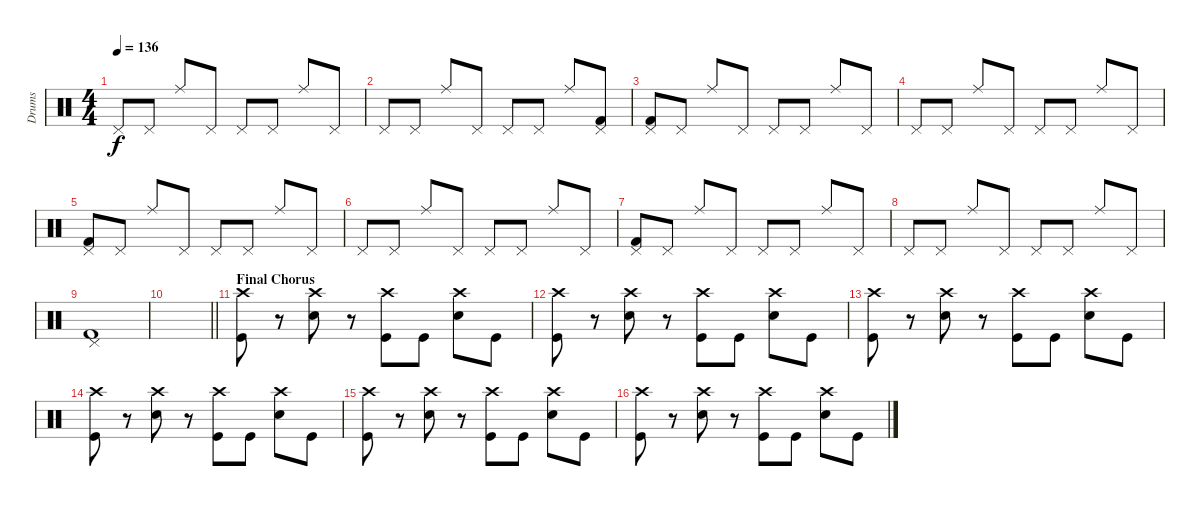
\track ("Drums" "Drums") {instrument percussion}
\staff {score}
\articulation defaults
\ts (4 4)
\tempo 136
\clef neutral
\ks c "Pedal Hi-Hat (hit)".8{dy f} "Pedal Hi-Hat (hit)".8 "Ride (middle)".8 "Pedal Hi-Hat (hit)".8 "Pedal Hi-Hat (hit)".8 "Pedal Hi-Hat (hit)".8 "Ride (middle)".8 "Pedal Hi-Hat (hit)".8
|
"Pedal Hi-Hat (hit)".8 "Pedal Hi-Hat (hit)".8 "Ride (middle)".8 "Pedal Hi-Hat (hit)".8 "Pedal Hi-Hat (hit)".8 "Pedal Hi-Hat (hit)".8 "Ride (middle)".8 ("Pedal Hi-Hat (hit)" "Kick (hit) 2").8 |
("Pedal Hi-Hat (hit)" "Kick (hit) 2").8 "Pedal Hi-Hat (hit)".8 "Ride (middle)".8 "Pedal Hi-Hat (hit)".8 "Pedal Hi-Hat (hit)".8 "Pedal Hi-Hat (hit)".8 "Ride (middle)".8 "Pedal Hi-Hat (hit)".8 |
"Pedal Hi-Hat (hit)".8 "Pedal Hi-Hat (hit)".8 "Ride (middle)".8 "Pedal Hi-Hat (hit)".8 "Pedal Hi-Hat (hit)".8 "Pedal Hi-Hat (hit)".8 "Ride (middle)".8 "Pedal Hi-Hat (hit)".8 |
("Pedal Hi-Hat (hit)" "Kick (hit) 2").8 "Pedal Hi-Hat (hit)".8 "Ride (middle)".8 "Pedal Hi-Hat (hit)".8 "Pedal Hi-Hat (hit)".8 "Pedal Hi-Hat (hit)".8 "Ride (middle)".8 "Pedal Hi-Hat (hit)".8 |
"Pedal Hi-Hat (hit)".8 "Pedal Hi-Hat (hit)".8 "Ride (middle)".8 "Pedal Hi-Hat (hit)".8 "Pedal Hi-Hat (hit)".8 "Pedal Hi-Hat (hit)".8 "Ride (middle)".8 "Pedal Hi-Hat (hit)".8 |
("Pedal Hi-Hat (hit)" "Kick (hit) 2").8 "Pedal Hi-Hat (hit)".8 "Ride (middle)".8 "Pedal Hi-Hat (hit)".8 "Pedal Hi-Hat (hit)".8 "Pedal Hi-Hat (hit)".8 "Ride (middle)".8 "Pedal Hi-Hat (hit)".8 |
"Pedal Hi-Hat (hit)".8 "Pedal Hi-Hat (hit)".8 "Ride (middle)".8 "Pedal Hi-Hat (hit)".8 "Pedal Hi-Hat (hit)".8 "Pedal Hi-Hat (hit)".8 "Ride (middle)".8 "Pedal Hi-Hat (hit)".8 |
("Pedal Hi-Hat (hit)" "Kick (hit) 2").1 |
\barLineRight lightlight
|
\section ("" "Final Chorus")
("Crash high (hit)" "Kick (hit)").8 r.8 ("Crash high (hit)" "Electric Snare (hit)").8 r.8 ("Crash high (hit)" "Kick (hit)").8 "Kick (hit)".8 ("Crash high (hit)" "Electric Snare (hit)").8 "Kick (hit)".8 |
("Crash high (hit)" "Kick (hit)").8 r.8 ("Crash high (hit)" "Electric Snare (hit)").8 r.8 ("Crash high (hit)" "Kick (hit)").8 "Kick (hit)".8 ("Crash high (hit)" "Electric Snare (hit)").8 "Kick (hit)".8 |
("Crash high (hit)" "Kick (hit)").8 r.8 ("Crash high (hit)" "Electric Snare (hit)").8 r.8 ("Crash high (hit)" "Kick (hit)").8 "Kick (hit)".8 ("Crash high (hit)" "Electric Snare (hit)").8 "Kick (hit)".8 |
("Crash high (hit)" "Kick (hit)").8 r.8 ("Crash high (hit)" "Electric Snare (hit)").8 r.8 ("Crash high (hit)" "Kick (hit)").8 "Kick (hit)".8 ("Crash high (hit)" "Electric Snare (hit)").8 "Kick (hit)".8 |
("Crash high (hit)" "Kick (hit)").8 r.8 ("Crash high (hit)" "Electric Snare (hit)").8 r.8 ("Crash high (hit)" "Kick (hit)").8 "Kick (hit)".8 ("Crash high (hit)" "Electric Snare (hit)").8 "Kick (hit)".8 |
("Crash high (hit)" "Kick (hit)").8 r.8 ("Crash high (hit)" "Electric Snare (hit)").8 r.8 ("Crash high (hit)" "Kick (hit)").8 "Kick (hit)".8 ("Crash high (hit)" "Electric Snare (hit)").8 "Kick (hit)".8
